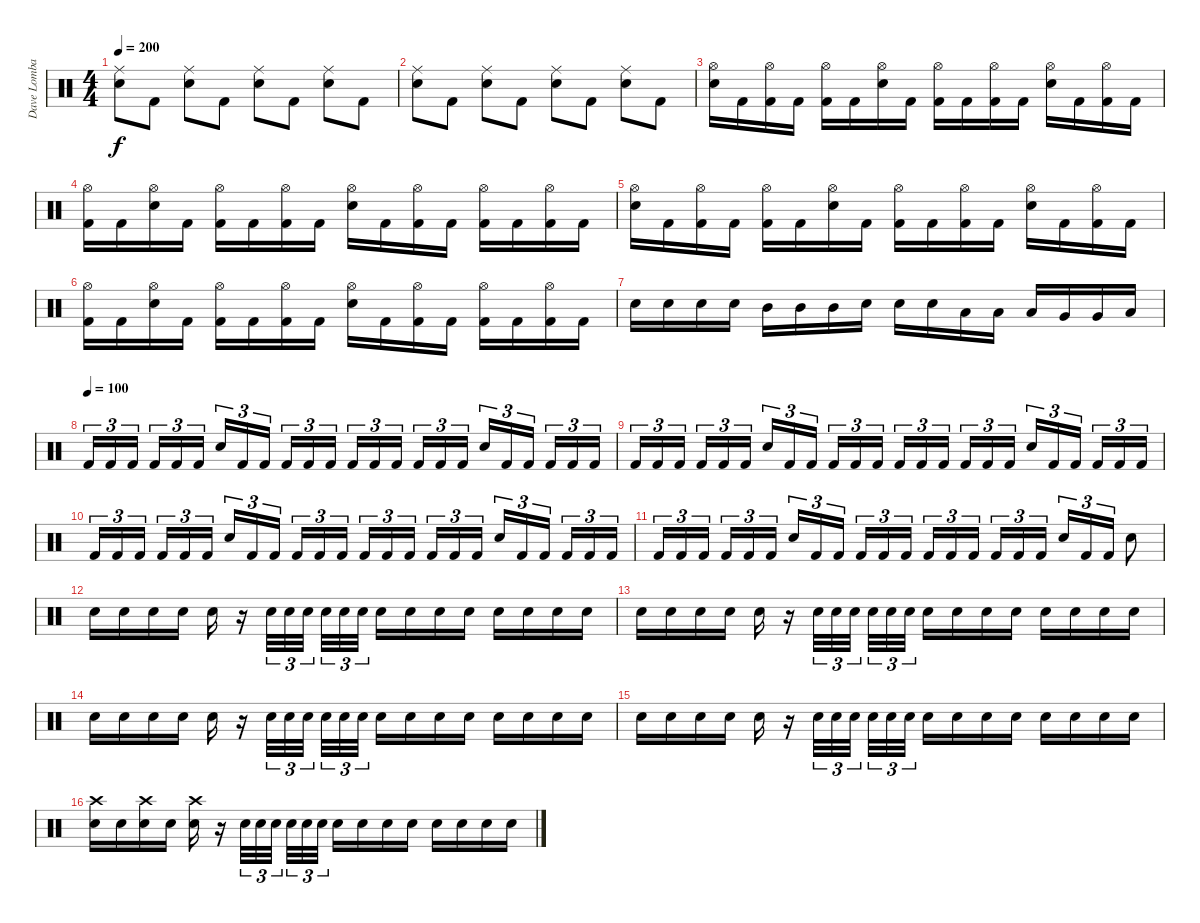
\track ("Dave Lombardo:" "Dave Lomba") {instrument percussion}
\staff {score}
\articulation defaults
\ts (4 4)
\tempo 200
\clef neutral
\ks c
("Ride (middle)" "Electric Snare (hit)").8{dy f} "Kick (hit) 2".8 ("Ride (middle)" "Electric Snare (hit)").8 "Kick (hit) 2".8 ("Ride (middle)" "Electric Snare (hit)").8 "Kick (hit) 2".8 ("Ride (middle)" "Electric Snare (hit)").8 "Kick (hit) 2".8 |
("Ride (middle)" "Electric Snare (hit)").8 "Kick (hit) 2".8 ("Ride (middle)" "Electric Snare (hit)").8 "Kick (hit) 2".8 ("Ride (middle)" "Electric Snare (hit)").8 "Kick (hit) 2".8 ("Ride (middle)" "Electric Snare (hit)").8 "Kick (hit) 2".8 |
("Hi-Hat (open)" "Electric Snare (hit)").16 "Kick (hit) 2".16 ("Hi-Hat (open)" "Kick (hit) 2").16 "Kick (hit) 2".16 ("Hi-Hat (open)" "Kick (hit) 2").16 "Kick (hit) 2".16 ("Hi-Hat (open)" "Electric Snare (hit)").16 "Kick (hit) 2".16 ("Hi-Hat (open)" "Kick (hit) 2").16 "Kick (hit) 2".16 ("Hi-Hat (open)" "Kick (hit) 2").16 "Kick (hit) 2".16 ("Hi-Hat (open)" "Electric Snare (hit)").16 "Kick (hit) 2".16 ("Hi-Hat (open)" "Kick (hit) 2").16 "Kick (hit) 2".16 |
("Hi-Hat (open)" "Kick (hit) 2").16 "Kick (hit) 2".16 ("Hi-Hat (open)" "Electric Snare (hit)").16 "Kick (hit) 2".16 ("Hi-Hat (open)" "Kick (hit) 2").16 "Kick (hit) 2".16 ("Hi-Hat (open)" "Kick (hit) 2").16 "Kick (hit) 2".16 ("Hi-Hat (open)" "Electric Snare (hit)").16 "Kick (hit) 2".16 ("Hi-Hat (open)" "Kick (hit) 2").16 "Kick (hit) 2".16 ("Hi-Hat (open)" "Kick (hit) 2").16 "Kick (hit) 2".16 ("Hi-Hat (open)" "Kick (hit) 2").16 "Kick (hit) 2".16 |
("Hi-Hat (open)" "Electric Snare (hit)").16 "Kick (hit) 2".16 ("Hi-Hat (open)" "Kick (hit) 2").16 "Kick (hit) 2".16 ("Hi-Hat (open)" "Kick (hit) 2").16 "Kick (hit) 2".16 ("Hi-Hat (open)" "Electric Snare (hit)").16 "Kick (hit) 2".16 ("Hi-Hat (open)" "Kick (hit) 2").16 "Kick (hit) 2".16 ("Hi-Hat (open)" "Kick (hit) 2").16 "Kick (hit) 2".16 ("Hi-Hat (open)" "Electric Snare (hit)").16 "Kick (hit) 2".16 ("Hi-Hat (open)" "Kick (hit) 2").16 "Kick (hit) 2".16 |
("Hi-Hat (open)" "Kick (hit) 2").16 "Kick (hit) 2".16 ("Hi-Hat (open)" "Electric Snare (hit)").16 "Kick (hit) 2".16 ("Hi-Hat (open)" "Kick (hit) 2").16 "Kick (hit) 2".16 ("Hi-Hat (open)" "Kick (hit) 2").16 "Kick (hit) 2".16 ("Hi-Hat (open)" "Electric Snare (hit)").16 "Kick (hit) 2".16 ("Hi-Hat (open)" "Kick (hit) 2").16 "Kick (hit) 2".16 ("Hi-Hat (open)" "Kick (hit) 2").16 "Kick (hit) 2".16 ("Hi-Hat (open)" "Kick (hit) 2").16 "Kick (hit) 2".16 |
"Electric Snare (hit)".16 "Electric Snare (hit)".16 "Electric Snare (hit)".16 "Electric Snare (hit)".16 "Mid Tom (hit)".16 "Mid Tom (hit)".16 "Mid Tom (hit)".16 "Electric Snare (hit)".16 "Electric Snare (hit)".16 "Electric Snare (hit)".16 "Low Tom (hit)".16 "Low Tom (hit)".16 "Low Tom (hit)".16 "Very Low Tom (hit)".16 "Very Low Tom (hit)".16 "Low Floor Tom (hit)".16 |
\tempo (100)
"Kick (hit) 2".16{tu (3 2)} "Kick (hit) 2".16{tu (3 2)} "Kick (hit) 2".16{tu (3 2) beam splitsecondary} "Kick (hit) 2".16{tu (3 2)} "Kick (hit) 2".16{tu (3 2)} "Kick (hit) 2".16{tu (3 2)} "Electric Snare (hit)".16{tu (3 2)} "Kick (hit) 2".16{tu (3 2)} "Kick (hit) 2".16{tu (3 2) beam splitsecondary} "Kick (hit) 2".16{tu (3 2)} "Kick (hit) 2".16{tu (3 2)} "Kick (hit) 2".16{tu (3 2)} "Kick (hit) 2".16{tu (3 2)} "Kick (hit) 2".16{tu (3 2)} "Kick (hit) 2".16{tu (3 2) beam splitsecondary} "Kick (hit) 2".16{tu (3 2)} "Kick (hit) 2".16{tu (3 2)} "Kick (hit) 2".16{tu (3 2)} "Electric Snare (hit)".16{tu (3 2)} "Kick (hit) 2".16{tu (3 2)} "Kick (hit) 2".16{tu (3 2) beam splitsecondary} "Kick (hit) 2".16{tu (3 2)} "Kick (hit) 2".16{tu (3 2)} "Kick (hit) 2".16{tu (3 2)} |
"Kick (hit) 2".16{tu (3 2)} "Kick (hit) 2".16{tu (3 2)} "Kick (hit) 2".16{tu (3 2) beam splitsecondary} "Kick (hit) 2".16{tu (3 2)} "Kick (hit) 2".16{tu (3 2)} "Kick (hit) 2".16{tu (3 2)} "Electric Snare (hit)".16{tu (3 2)} "Kick (hit) 2".16{tu (3 2)} "Kick (hit) 2".16{tu (3 2) beam splitsecondary} "Kick (hit) 2".16{tu (3 2)} "Kick (hit) 2".16{tu (3 2)} "Kick (hit) 2".16{tu (3 2)} "Kick (hit) 2".16{tu (3 2)} "Kick (hit) 2".16{tu (3 2)} "Kick (hit) 2".16{tu (3 2) beam splitsecondary} "Kick (hit) 2".16{tu (3 2)} "Kick (hit) 2".16{tu (3 2)} "Kick (hit) 2".16{tu (3 2)} "Electric Snare (hit)".16{tu (3 2)} "Kick (hit) 2".16{tu (3 2)} "Kick (hit) 2".16{tu (3 2) beam splitsecondary} "Kick (hit) 2".16{tu (3 2)} "Kick (hit) 2".16{tu (3 2)} "Kick (hit) 2".16{tu (3 2)} |
"Kick (hit) 2".16{tu (3 2)} "Kick (hit) 2".16{tu (3 2)} "Kick (hit) 2".16{tu (3 2) beam splitsecondary} "Kick (hit) 2".16{tu (3 2)} "Kick (hit) 2".16{tu (3 2)} "Kick (hit) 2".16{tu (3 2)} "Electric Snare (hit)".16{tu (3 2)} "Kick (hit) 2".16{tu (3 2)} "Kick (hit) 2".16{tu (3 2) beam splitsecondary} "Kick (hit) 2".16{tu (3 2)} "Kick (hit) 2".16{tu (3 2)} "Kick (hit) 2".16{tu (3 2)} "Kick (hit) 2".16{tu (3 2)} "Kick (hit) 2".16{tu (3 2)} "Kick (hit) 2".16{tu (3 2) beam splitsecondary} "Kick (hit) 2".16{tu (3 2)} "Kick (hit) 2".16{tu (3 2)} "Kick (hit) 2".16{tu (3 2)} "Electric Snare (hit)".16{tu (3 2)} "Kick (hit) 2".16{tu (3 2)} "Kick (hit) 2".16{tu (3 2) beam splitsecondary} "Kick (hit) 2".16{tu (3 2)} "Kick (hit) 2".16{tu (3 2)} "Kick (hit) 2".16{tu (3 2)} |
"Kick (hit) 2".16{tu (3 2)} "Kick (hit) 2".16{tu (3 2)} "Kick (hit) 2".16{tu (3 2) beam splitsecondary} "Kick (hit) 2".16{tu (3 2)} "Kick (hit) 2".16{tu (3 2)} "Kick (hit) 2".16{tu (3 2)} "Electric Snare (hit)".16{tu (3 2)} "Kick (hit) 2".16{tu (3 2)} "Kick (hit) 2".16{tu (3 2) beam splitsecondary} "Kick (hit) 2".16{tu (3 2)} "Kick (hit) 2".16{tu (3 2)} "Kick (hit) 2".16{tu (3 2)} "Kick (hit) 2".16{tu (3 2)} "Kick (hit) 2".16{tu (3 2)} "Kick (hit) 2".16{tu (3 2) beam splitsecondary} "Kick (hit) 2".16{tu (3 2)} "Kick (hit) 2".16{tu (3 2)} "Kick (hit) 2".16{tu (3 2)} "Electric Snare (hit)".16{tu (3 2)} "Kick (hit) 2".16{tu (3 2)} "Kick (hit) 2".16{tu (3 2)} "Electric Snare (hit)".8 |
"Electric Snare (hit)".16 "Electric Snare (hit)".16 "Electric Snare (hit)".16 "Electric Snare (hit)".16 "Electric Snare (hit)".16 r.16 "Electric Snare (hit)".32{tu (3 2)} "Electric Snare (hit)".32{tu (3 2)} "Electric Snare (hit)".32{tu (3 2) beam splitsecondary} "Electric Snare (hit)".32{tu (3 2)} "Electric Snare (hit)".32{tu (3 2)} "Electric Snare (hit)".32{tu (3 2)} "Electric Snare (hit)".16 "Electric Snare (hit)".16 "Electric Snare (hit)".16 "Electric Snare (hit)".16 "Electric Snare (hit)".16 "Electric Snare (hit)".16 "Electric Snare (hit)".16 "Electric Snare (hit)".16 |
"Electric Snare (hit)".16 "Electric Snare (hit)".16 "Electric Snare (hit)".16 "Electric Snare (hit)".16 "Electric Snare (hit)".16 r.16 "Electric Snare (hit)".32{tu (3 2)} "Electric Snare (hit)".32{tu (3 2)} "Electric Snare (hit)".32{tu (3 2) beam splitsecondary} "Electric Snare (hit)".32{tu (3 2)} "Electric Snare (hit)".32{tu (3 2)} "Electric Snare (hit)".32{tu (3 2)} "Electric Snare (hit)".16 "Electric Snare (hit)".16 "Electric Snare (hit)".16 "Electric Snare (hit)".16 "Electric Snare (hit)".16 "Electric Snare (hit)".16 "Electric Snare (hit)".16 "Electric Snare (hit)".16 |
"Electric Snare (hit)".16 "Electric Snare (hit)".16 "Electric Snare (hit)".16 "Electric Snare (hit)".16 "Electric Snare (hit)".16 r.16 "Electric Snare (hit)".32{tu (3 2)} "Electric Snare (hit)".32{tu (3 2)} "Electric Snare (hit)".32{tu (3 2) beam splitsecondary} "Electric Snare (hit)".32{tu (3 2)} "Electric Snare (hit)".32{tu (3 2)} "Electric Snare (hit)".32{tu (3 2)} "Electric Snare (hit)".16 "Electric Snare (hit)".16 "Electric Snare (hit)".16 "Electric Snare (hit)".16 "Electric Snare (hit)".16 "Electric Snare (hit)".16 "Electric Snare (hit)".16 "Electric Snare (hit)".16 |
"Electric Snare (hit)".16 "Electric Snare (hit)".16 "Electric Snare (hit)".16 "Electric Snare (hit)".16 "Electric Snare (hit)".16 r.16 "Electric Snare (hit)".32{tu (3 2)} "Electric Snare (hit)".32{tu (3 2)} "Electric Snare (hit)".32{tu (3 2) beam splitsecondary} "Electric Snare (hit)".32{tu (3 2)} "Electric Snare (hit)".32{tu (3 2)} "Electric Snare (hit)".32{tu (3 2)} "Electric Snare (hit)".16 "Electric Snare (hit)".16 "Electric Snare (hit)".16 "Electric Snare (hit)".16 "Electric Snare (hit)".16 "Electric Snare (hit)".16 "Electric Snare (hit)".16 "Electric Snare (hit)".16 |
("Crash high (hit)" "Electric Snare (hit)").16 "Electric Snare (hit)".16 ("Crash high (hit)" "Electric Snare (hit)").16 "Electric Snare (hit)".16 ("Crash high (hit)" "Electric Snare (hit)").16 r.16 "Electric Snare (hit)".32{tu (3 2)} "Electric Snare (hit)".32{tu (3 2)} "Electric Snare (hit)".32{tu (3 2) beam splitsecondary} "Electric Snare (hit)".32{tu (3 2)} "Electric Snare (hit)".32{tu (3 2)} "Electric Snare (hit)".32{tu (3 2)} "Electric Snare (hit)".16 "Electric Snare (hit)".16 "Electric Snare (hit)".16 "Electric Snare (hit)".16 "Electric Snare (hit)".16 "Electric Snare (hit)".16 "Electric Snare (hit)".16 "Electric Snare (hit)".16
